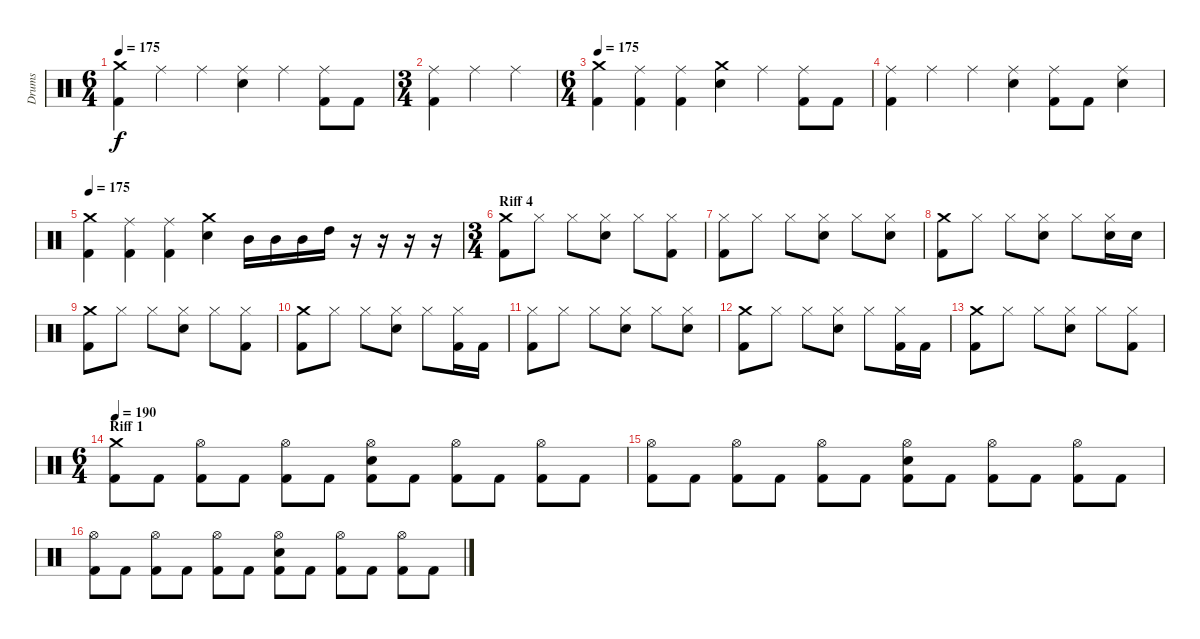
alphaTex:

\track ("Drums" "Drums") {instrument percussion}
\staff {score}
\articulation defaults
\ts (6 4)
\tempo 175
\clef neutral
\ks c
("Crash medium (hit)" "Kick (hit) 2").4{dy f} "Ride (middle)".4 "Ride (middle)".4 ("Ride (middle)" "Electric Snare (hit)").4 "Ride (middle)".4 ("Ride (middle)" "Kick (hit) 2").8 "Kick (hit) 2".8 |
\ts (3 4)
("Ride (middle)" "Kick (hit) 2").4 "Ride (middle)".4 "Ride (middle)".4 |
\ts (6 4)
\tempo 175
("Crash medium (hit)" "Kick (hit) 2").4 ("Ride (middle)" "Kick (hit) 2").4 ("Ride (middle)" "Kick (hit) 2").4 ("Crash medium (hit)" "Electric Snare (hit)").4 "Ride (middle)".4 ("Ride (middle)" "Kick (hit) 2").8 "Kick (hit) 2".8 |
("Ride (middle)" "Kick (hit) 2").4 "Ride (middle)".4 "Ride (middle)".4 ("Ride (middle)" "Electric Snare (hit)").4 ("Ride (middle)" "Kick (hit) 2").8 "Kick (hit) 2".8 ("Ride (middle)" "Electric Snare (hit)").4 |
\tempo 175
("Crash medium (hit)" "Kick (hit) 2").4 ("Ride (middle)" "Kick (hit) 2").4 ("Ride (middle)" "Kick (hit) 2").4 ("Crash medium (hit)" "Electric Snare (hit)").4 "Mid Tom (hit)".16 "Mid Tom (hit)".16 "Mid Tom (hit)".16 "High Tom (hit)".16 r.16 r.16 r.16 r.16 |
\ts (3 4)
\section ("" "Riff 4")
("Crash medium (hit)" "Kick (hit) 2").8 "Hi-Hat (closed)".8 "Hi-Hat (closed)".8 ("Hi-Hat (closed)" "Electric Snare (hit)").8 "Hi-Hat (closed)".8 ("Hi-Hat (closed)" "Kick (hit) 2").8 |
("Hi-Hat (closed)" "Kick (hit) 2").8 "Hi-Hat (closed)".8 "Hi-Hat (closed)".8 ("Hi-Hat (closed)" "Electric Snare (hit)").8 "Hi-Hat (closed)".8 ("Hi-Hat (closed)" "Electric Snare (hit)").8 |
("Crash medium (hit)" "Kick (hit) 2").8 "Hi-Hat (closed)".8 "Hi-Hat (closed)".8 ("Hi-Hat (closed)" "Electric Snare (hit)").8 "Hi-Hat (closed)".8 ("Hi-Hat (closed)" "Electric Snare (hit)").16 "Electric Snare (hit)".16 |
("Crash medium (hit)" "Kick (hit) 2").8 "Hi-Hat (closed)".8 "Hi-Hat (closed)".8 ("Hi-Hat (closed)" "Electric Snare (hit)").8 "Hi-Hat (closed)".8 ("Hi-Hat (closed)" "Kick (hit) 2").8 |
("Crash medium (hit)" "Kick (hit) 2").8 "Hi-Hat (closed)".8 "Hi-Hat (closed)".8 ("Hi-Hat (closed)" "Electric Snare (hit)").8 "Hi-Hat (closed)".8 ("Hi-Hat (closed)" "Kick (hit) 2").16 "Kick (hit) 2".16 |
("Hi-Hat (closed)" "Kick (hit) 2").8 "Hi-Hat (closed)".8 "Hi-Hat (closed)".8 ("Hi-Hat (closed)" "Electric Snare (hit)").8 "Hi-Hat (closed)".8 ("Hi-Hat (closed)" "Electric Snare (hit)").8 |
("Crash medium (hit)" "Kick (hit) 2").8 "Hi-Hat (closed)".8 "Hi-Hat (closed)".8 ("Hi-Hat (closed)" "Electric Snare (hit)").8 "Hi-Hat (closed)".8 ("Hi-Hat (closed)" "Kick (hit) 2").16 "Kick (hit) 2".16 |
("Crash medium (hit)" "Kick (hit) 2").8 "Hi-Hat (closed)".8 "Hi-Hat (closed)".8 ("Hi-Hat (closed)" "Electric Snare (hit)").8 "Hi-Hat (closed)".8 ("Hi-Hat (closed)" "Kick (hit) 2").8 |
\ts (6 4)
\section ("" "Riff 1")
\tempo 190
("Crash medium (hit)" "Kick (hit) 2").8{volume 13} "Kick (hit) 2".8 ("Hi-Hat (open)" "Kick (hit) 2").8 "Kick (hit) 2".8 ("Hi-Hat (open)" "Kick (hit) 2").8 "Kick (hit) 2".8 ("Hi-Hat (open)" "Electric Snare (hit)" "Kick (hit) 2").8 "Kick (hit) 2".8 ("Hi-Hat (open)" "Kick (hit) 2").8 "Kick (hit) 2".8 ("Hi-Hat (open)" "Kick (hit) 2").8 "Kick (hit) 2".8 |
("Hi-Hat (open)" "Kick (hit) 2").8 "Kick (hit) 2".8 ("Hi-Hat (open)" "Kick (hit) 2").8 "Kick (hit) 2".8 ("Hi-Hat (open)" "Kick (hit) 2").8 "Kick (hit) 2".8 ("Hi-Hat (open)" "Electric Snare (hit)" "Kick (hit) 2").8 "Kick (hit) 2".8 ("Hi-Hat (open)" "Kick (hit) 2").8 "Kick (hit) 2".8 ("Hi-Hat (open)" "Kick (hit) 2").8 "Kick (hit) 2".8 |
("Hi-Hat (open)" "Kick (hit) 2").8 "Kick (hit) 2".8 ("Hi-Hat (open)" "Kick (hit) 2").8 "Kick (hit) 2".8 ("Hi-Hat (open)" "Kick (hit) 2").8 "Kick (hit) 2".8 ("Hi-Hat (open)" "Electric Snare (hit)" "Kick (hit) 2").8 "Kick (hit) 2".8 ("Hi-Hat (open)" "Kick (hit) 2").8 "Kick (hit) 2".8 ("Hi-Hat (open)" "Kick (hit) 2").8 "Kick (hit) 2".8
